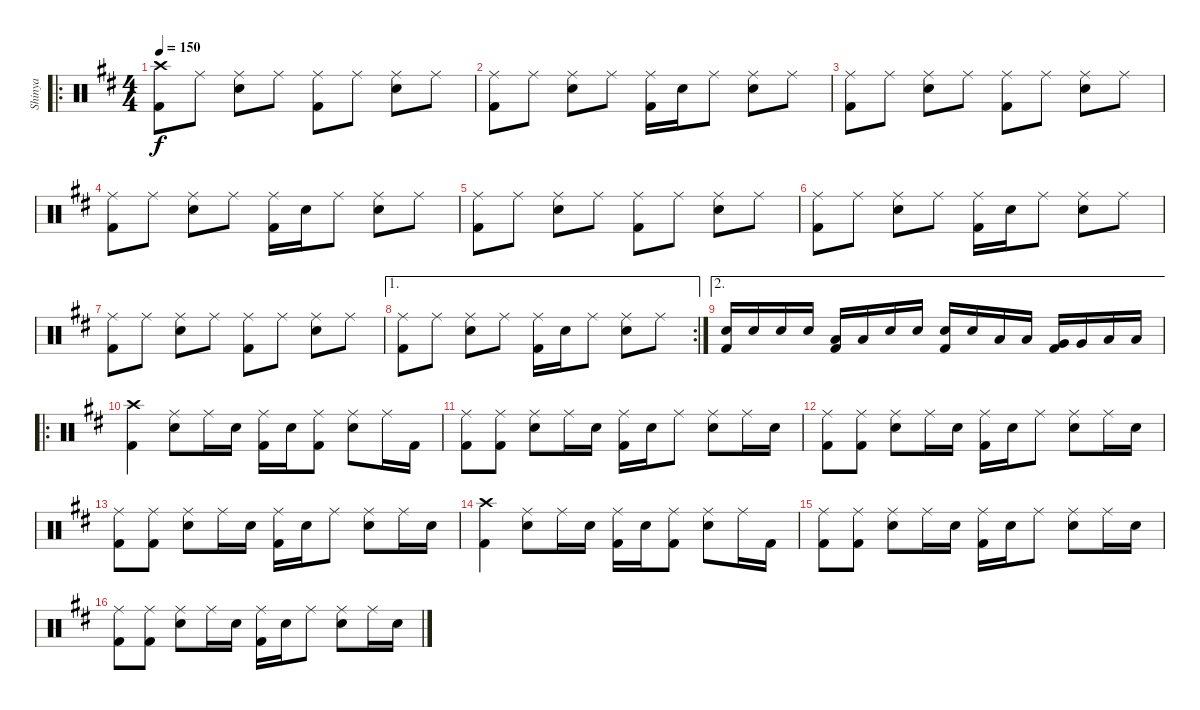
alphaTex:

\track ("Shinya" "Shinya") {instrument percussion}
\staff {score}
\articulation defaults
\ro
\ts (4 4)
\tempo 150
\clef neutral
\ks d
("Crash high (hit)" "Kick (hit) 2").8{dy f} "Ride (middle)".8 ("Ride (middle)" "Electric Snare (hit)").8 "Ride (middle)".8 ("Ride (middle)" "Kick (hit) 2").8 "Ride (middle)".8 ("Ride (middle)" "Electric Snare (hit)").8 "Ride (middle)".8 |
("Ride (middle)" "Kick (hit) 2").8 "Ride (middle)".8 ("Ride (middle)" "Electric Snare (hit)").8 "Ride (middle)".8 ("Ride (middle)" "Kick (hit) 2").16 "Electric Snare (hit)".16 "Ride (middle)".8 ("Ride (middle)" "Electric Snare (hit)").8 "Ride (middle)".8 |
("Ride (middle)" "Kick (hit) 2").8 "Ride (middle)".8 ("Ride (middle)" "Electric Snare (hit)").8 "Ride (middle)".8 ("Ride (middle)" "Kick (hit) 2").8 "Ride (middle)".8 ("Ride (middle)" "Electric Snare (hit)").8 "Ride (middle)".8 |
("Ride (middle)" "Kick (hit) 2").8 "Ride (middle)".8 ("Ride (middle)" "Electric Snare (hit)").8 "Ride (middle)".8 ("Ride (middle)" "Kick (hit) 2").16 "Electric Snare (hit)".16 "Ride (middle)".8 ("Ride (middle)" "Electric Snare (hit)").8 "Ride (middle)".8 |
("Ride (middle)" "Kick (hit) 2").8 "Ride (middle)".8 ("Ride (middle)" "Electric Snare (hit)").8 "Ride (middle)".8 ("Ride (middle)" "Kick (hit) 2").8 "Ride (middle)".8 ("Ride (middle)" "Electric Snare (hit)").8 "Ride (middle)".8 |
("Ride (middle)" "Kick (hit) 2").8 "Ride (middle)".8 ("Ride (middle)" "Electric Snare (hit)").8 "Ride (middle)".8 ("Ride (middle)" "Kick (hit) 2").16 "Electric Snare (hit)".16 "Ride (middle)".8 ("Ride (middle)" "Electric Snare (hit)").8 "Ride (middle)".8 |
("Ride (middle)" "Kick (hit) 2").8 "Ride (middle)".8 ("Ride (middle)" "Electric Snare (hit)").8 "Ride (middle)".8 ("Ride (middle)" "Kick (hit) 2").8 "Ride (middle)".8 ("Ride (middle)" "Electric Snare (hit)").8 "Ride (middle)".8 |
\ae 1
\rc 2
("Ride (middle)" "Kick (hit) 2").8 "Ride (middle)".8 ("Ride (middle)" "Electric Snare (hit)").8 "Ride (middle)".8 ("Ride (middle)" "Kick (hit) 2").16 "Electric Snare (hit)".16 "Ride (middle)".8 ("Ride (middle)" "Electric Snare (hit)").8 "Ride (middle)".8 |
\ae 2
("Electric Snare (hit)" "Kick (hit) 2").16 "Electric Snare (hit)".16 "Electric Snare (hit)".16 "Electric Snare (hit)".16 ("Low Tom (hit)" "Kick (hit) 2").16 "Low Tom (hit)".16 "Electric Snare (hit)".16 "Electric Snare (hit)".16 ("Electric Snare (hit)" "Kick (hit) 2").16 "Electric Snare (hit)".16 "Low Tom (hit)".16 "Low Tom (hit)".16 ("Very Low Tom (hit)" "Kick (hit) 2").16 "Very Low Tom (hit)".16 "Low Floor Tom (hit)".16 "Low Floor Tom (hit)".16 |
\ro
("Crash high (hit)" "Kick (hit) 2").4 ("Ride (middle)" "Electric Snare (hit)").8 "Ride (middle)".16 "Electric Snare (hit)".16 ("Ride (middle)" "Kick (hit) 2").16 "Electric Snare (hit)".16 ("Ride (middle)" "Kick (hit) 2").8 ("Ride (middle)" "Electric Snare (hit)").8 "Ride (middle)".16 "Kick (hit) 2".16 |
("Ride (middle)" "Kick (hit) 2").8 ("Ride (middle)" "Kick (hit) 2").8 ("Ride (middle)" "Electric Snare (hit)").8 "Ride (middle)".16 "Electric Snare (hit)".16 ("Ride (middle)" "Kick (hit) 2").16 "Electric Snare (hit)".16 "Ride (middle)".8 ("Ride (middle)" "Electric Snare (hit)").8 "Ride (middle)".16 "Electric Snare (hit)".16 |
("Ride (middle)" "Kick (hit) 2").8 ("Ride (middle)" "Kick (hit) 2").8 ("Ride (middle)" "Electric Snare (hit)").8 "Ride (middle)".16 "Electric Snare (hit)".16 ("Ride (middle)" "Kick (hit) 2").16 "Electric Snare (hit)".16 "Ride (middle)".8 ("Ride (middle)" "Electric Snare (hit)").8 "Ride (middle)".16 "Electric Snare (hit)".16 |
("Ride (middle)" "Kick (hit) 2").8 ("Ride (middle)" "Kick (hit) 2").8 ("Ride (middle)" "Electric Snare (hit)").8 "Ride (middle)".16 "Electric Snare (hit)".16 ("Ride (middle)" "Kick (hit) 2").16 "Electric Snare (hit)".16 "Ride (middle)".8 ("Ride (middle)" "Electric Snare (hit)").8 "Ride (middle)".16 "Electric Snare (hit)".16 |
("Crash high (hit)" "Kick (hit) 2").4 ("Ride (middle)" "Electric Snare (hit)").8 "Ride (middle)".16 "Electric Snare (hit)".16 ("Ride (middle)" "Kick (hit) 2").16 "Electric Snare (hit)".16 ("Ride (middle)" "Kick (hit) 2").8 ("Ride (middle)" "Electric Snare (hit)").8 "Ride (middle)".16 "Kick (hit) 2".16 |
("Ride (middle)" "Kick (hit) 2").8 ("Ride (middle)" "Kick (hit) 2").8 ("Ride (middle)" "Electric Snare (hit)").8 "Ride (middle)".16 "Electric Snare (hit)".16 ("Ride (middle)" "Kick (hit) 2").16 "Electric Snare (hit)".16 "Ride (middle)".8 ("Ride (middle)" "Electric Snare (hit)").8 "Ride (middle)".16 "Electric Snare (hit)".16 |
("Ride (middle)" "Kick (hit) 2").8 ("Ride (middle)" "Kick (hit) 2").8 ("Ride (middle)" "Electric Snare (hit)").8 "Ride (middle)".16 "Electric Snare (hit)".16 ("Ride (middle)" "Kick (hit) 2").16 "Electric Snare (hit)".16 "Ride (middle)".8 ("Ride (middle)" "Electric Snare (hit)").8 "Ride (middle)".16 "Electric Snare (hit)".16
